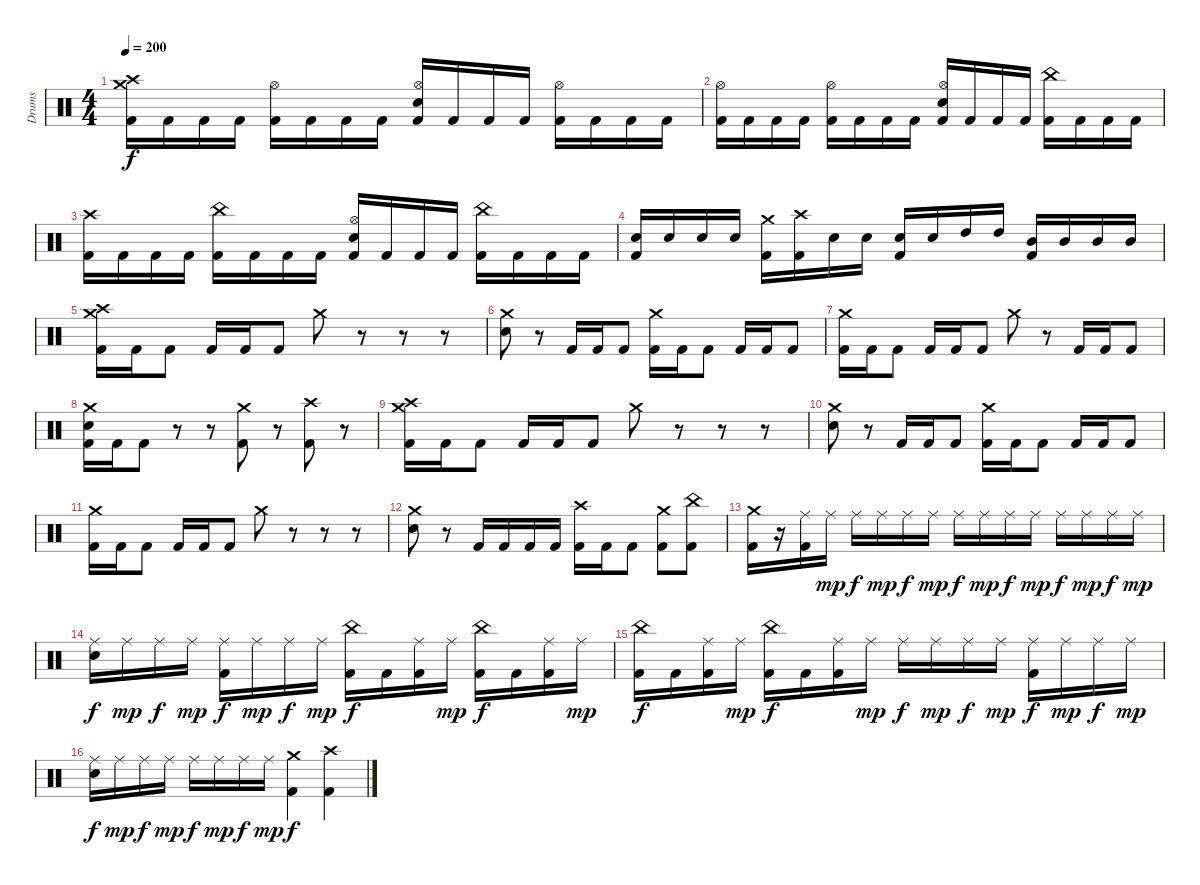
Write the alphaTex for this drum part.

\track ("Drums" "Drums") {instrument percussion}
\staff
\articulation defaults
\ts (4 4)
\tempo 200
\clef neutral
\ks c
("Crash medium (hit)" "Crash high (hit)" "Kick (hit) 2").16{dy f} "Kick (hit) 2".16 "Kick (hit) 2".16 "Kick (hit) 2".16 ("Hi-Hat (open)" "Kick (hit) 2").16 "Kick (hit) 2".16 "Kick (hit) 2".16 "Kick (hit) 2".16 ("Hi-Hat (open)" "Electric Snare (hit)" "Kick (hit) 2").16 "Kick (hit) 2".16 "Kick (hit) 2".16 "Kick (hit) 2".16 ("Hi-Hat (open)" "Kick (hit) 2").16 "Kick (hit) 2".16 "Kick (hit) 2".16 "Kick (hit) 2".16 |
("Hi-Hat (open)" "Kick (hit) 2").16 "Kick (hit) 2".16 "Kick (hit) 2".16 "Kick (hit) 2".16 ("Hi-Hat (open)" "Kick (hit) 2").16 "Kick (hit) 2".16 "Kick (hit) 2".16 "Kick (hit) 2".16 ("Hi-Hat (open)" "Electric Snare (hit)" "Kick (hit) 2").16 "Kick (hit) 2".16 "Kick (hit) 2".16 "Kick (hit) 2".16 ("China (hit)" "Kick (hit) 2").16 "Kick (hit) 2".16 "Kick (hit) 2".16 "Kick (hit) 2".16 |
("Crash high (hit)" "Kick (hit) 2").16 "Kick (hit) 2".16 "Kick (hit) 2".16 "Kick (hit) 2".16 ("China (hit)" "Kick (hit) 2").16 "Kick (hit) 2".16 "Kick (hit) 2".16 "Kick (hit) 2".16 ("Hi-Hat (open)" "Electric Snare (hit)" "Kick (hit) 2").16 "Kick (hit) 2".16 "Kick (hit) 2".16 "Kick (hit) 2".16 ("China (hit)" "Kick (hit) 2").16 "Kick (hit) 2".16 "Kick (hit) 2".16 "Kick (hit) 2".16 |
("Electric Snare (hit)" "Kick (hit) 2").16 "Electric Snare (hit)".16 "Electric Snare (hit)".16 "Electric Snare (hit)".16 ("Crash medium (hit)" "Kick (hit) 2").16 ("Crash high (hit)" "Kick (hit) 2").16 "Electric Snare (hit)".16 "Electric Snare (hit)".16 ("Electric Snare (hit)" "Kick (hit) 2").16 "Electric Snare (hit)".16 "High Tom (hit)".16 "High Tom (hit)".16 ("Mid Tom (hit)" "Kick (hit) 2").16 "Mid Tom (hit)".16 "Mid Tom (hit)".16 "Mid Tom (hit)".16 |
("Crash medium (hit)" "Crash high (hit)" "Kick (hit) 2").16 "Kick (hit) 2".16 "Kick (hit) 2".8 "Kick (hit) 2".16 "Kick (hit) 2".16 "Kick (hit) 2".8 "Crash medium (hit)".8 r.8 r.8 r.8 |
("Crash medium (hit)" "Electric Snare (hit)").8 r.8 "Kick (hit) 2".16 "Kick (hit) 2".16 "Kick (hit) 2".8 ("Crash medium (hit)" "Kick (hit) 2").16 "Kick (hit) 2".16 "Kick (hit) 2".8 "Kick (hit) 2".16 "Kick (hit) 2".16 "Kick (hit) 2".8 |
("Crash medium (hit)" "Kick (hit) 2").16 "Kick (hit) 2".16 "Kick (hit) 2".8 "Kick (hit) 2".16 "Kick (hit) 2".16 "Kick (hit) 2".8 "Crash medium (hit)".8 r.8 "Kick (hit) 2".16 "Kick (hit) 2".16 "Kick (hit) 2".8 |
("Crash medium (hit)" "Electric Snare (hit)" "Kick (hit) 2").16 "Kick (hit) 2".16 "Kick (hit) 2".8 r.8 r.8 ("Crash medium (hit)" "Kick (hit) 2").8 r.8 ("Crash high (hit)" "Kick (hit) 2").8 r.8 |
("Crash medium (hit)" "Crash high (hit)" "Kick (hit) 2").16 "Kick (hit) 2".16 "Kick (hit) 2".8 "Kick (hit) 2".16 "Kick (hit) 2".16 "Kick (hit) 2".8 "Crash medium (hit)".8 r.8 r.8 r.8 |
("Crash medium (hit)" "Electric Snare (hit)").8 r.8 "Kick (hit) 2".16 "Kick (hit) 2".16 "Kick (hit) 2".8 ("Crash medium (hit)" "Kick (hit) 2").16 "Kick (hit) 2".16 "Kick (hit) 2".8 "Kick (hit) 2".16 "Kick (hit) 2".16 "Kick (hit) 2".8 |
("Crash medium (hit)" "Kick (hit) 2").16 "Kick (hit) 2".16 "Kick (hit) 2".8 "Kick (hit) 2".16 "Kick (hit) 2".16 "Kick (hit) 2".8 "Crash medium (hit)".8 r.8 r.8 r.8 |
("Crash medium (hit)" "Electric Snare (hit)").8 r.8 "Kick (hit) 2".16 "Kick (hit) 2".16 "Kick (hit) 2".16 "Kick (hit) 2".16 ("Crash high (hit)" "Kick (hit) 2").16 "Kick (hit) 2".16 "Kick (hit) 2".8 ("Crash medium (hit)" "Kick (hit) 2").8 ("China (hit)" "Kick (hit) 2").8 |
("Crash medium (hit)" "Kick (hit) 2").16 r.16 ("Ride (middle)" "Kick (hit) 2").16 "Ride (middle)".16{dy mp} "Ride (middle)".16{dy f} "Ride (middle)".16{dy mp} "Ride (middle)".16{dy f} "Ride (middle)".16{dy mp} "Ride (middle)".16{dy f} "Ride (middle)".16{dy mp} "Ride (middle)".16{dy f} "Ride (middle)".16{dy mp} "Ride (middle)".16{dy f} "Ride (middle)".16{dy mp} "Ride (middle)".16{dy f} "Ride (middle)".16{dy mp} |
("Ride (middle)" "Electric Snare (hit)").16{dy f} "Ride (middle)".16{dy mp} "Ride (middle)".16{dy f} "Ride (middle)".16{dy mp} ("Ride (middle)" "Kick (hit) 2").16{dy f} "Ride (middle)".16{dy mp} "Ride (middle)".16{dy f} "Ride (middle)".16{dy mp} ("China (hit)" "Kick (hit) 2").16{dy f} "Kick (hit) 2".16 ("Ride (middle)" "Kick (hit) 2").16 "Ride (middle)".16{dy mp} ("China (hit)" "Kick (hit) 2").16{dy f} "Kick (hit) 2".16 ("Ride (middle)" "Kick (hit) 2").16 "Ride (middle)".16{dy mp} |
("China (hit)" "Kick (hit) 2").16{dy f} "Kick (hit) 2".16 ("Ride (middle)" "Kick (hit) 2").16 "Ride (middle)".16{dy mp} ("China (hit)" "Kick (hit) 2").16{dy f} "Kick (hit) 2".16 ("Ride (middle)" "Kick (hit) 2").16 "Ride (middle)".16{dy mp} "Ride (middle)".16{dy f} "Ride (middle)".16{dy mp} "Ride (middle)".16{dy f} "Ride (middle)".16{dy mp} ("Ride (middle)" "Kick (hit) 2").16{dy f} "Ride (middle)".16{dy mp} "Ride (middle)".16{dy f} "Ride (middle)".16{dy mp} |
("Ride (middle)" "Electric Snare (hit)").16{dy f} "Ride (middle)".16{dy mp} "Ride (middle)".16{dy f} "Ride (middle)".16{dy mp} "Ride (middle)".16{dy f} "Ride (middle)".16{dy mp} "Ride (middle)".16{dy f} "Ride (middle)".16{dy mp} ("Crash medium (hit)" "Kick (hit) 2").4{dy f} ("Crash high (hit)" "Kick (hit) 2").4
